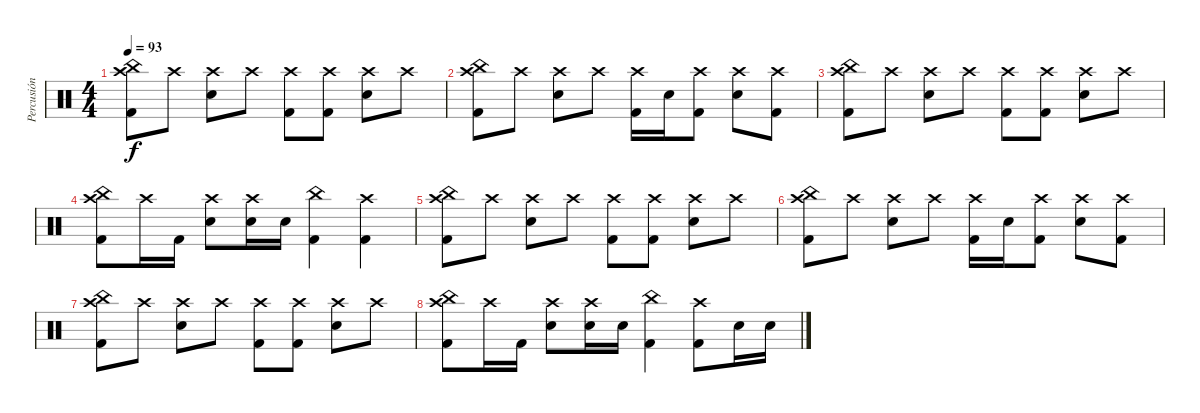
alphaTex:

\track ("Percusión" "Percusión") {instrument percussion}
\staff {score}
\articulation defaults
\ts (4 4)
\tempo 93
\clef neutral
\ks c
("China (hit)" "Kick (hit) 2" "Crash high (hit)").8{dy f} "Crash high (hit)".8 ("Snare (hit) 2" "Crash high (hit)").8 "Crash high (hit)".8 ("Kick (hit) 2" "Crash high (hit)").8 ("Kick (hit) 2" "Crash high (hit)").8 ("Snare (hit) 2" "Crash high (hit)").8 "Crash high (hit)".8 |
("China (hit)" "Kick (hit) 2" "Crash high (hit)").8 "Crash high (hit)".8 ("Snare (hit) 2" "Crash high (hit)").8 "Crash high (hit)".8 ("Kick (hit) 2" "Crash high (hit)").16 "Snare (hit) 2".16 ("Kick (hit) 2" "Crash high (hit)").8 ("Snare (hit) 2" "Crash high (hit)").8 ("Kick (hit) 2" "Crash high (hit)").8 |
("China (hit)" "Kick (hit) 2" "Crash high (hit)").8 "Crash high (hit)".8 ("Snare (hit) 2" "Crash high (hit)").8 "Crash high (hit)".8 ("Kick (hit) 2" "Crash high (hit)").8 ("Kick (hit) 2" "Crash high (hit)").8 ("Snare (hit) 2" "Crash high (hit)").8 "Crash high (hit)".8 |
("China (hit)" "Kick (hit) 2" "Crash high (hit)").8 "Crash high (hit)".16 "Kick (hit) 2".16 ("Snare (hit) 2" "Crash high (hit)").8 ("Snare (hit) 2" "Crash high (hit)").16 "Snare (hit) 2".16 ("China (hit)" "Kick (hit) 2").4 ("Kick (hit) 2" "Crash high (hit)").4 |
("China (hit)" "Kick (hit) 2" "Crash high (hit)").8 "Crash high (hit)".8 ("Snare (hit) 2" "Crash high (hit)").8 "Crash high (hit)".8 ("Kick (hit) 2" "Crash high (hit)").8 ("Kick (hit) 2" "Crash high (hit)").8 ("Snare (hit) 2" "Crash high (hit)").8 "Crash high (hit)".8 |
("China (hit)" "Kick (hit) 2" "Crash high (hit)").8 "Crash high (hit)".8 ("Snare (hit) 2" "Crash high (hit)").8 "Crash high (hit)".8 ("Kick (hit) 2" "Crash high (hit)").16 "Snare (hit) 2".16 ("Kick (hit) 2" "Crash high (hit)").8 ("Snare (hit) 2" "Crash high (hit)").8 ("Kick (hit) 2" "Crash high (hit)").8 |
("China (hit)" "Kick (hit) 2" "Crash high (hit)").8 "Crash high (hit)".8 ("Snare (hit) 2" "Crash high (hit)").8 "Crash high (hit)".8 ("Kick (hit) 2" "Crash high (hit)").8 ("Kick (hit) 2" "Crash high (hit)").8 ("Snare (hit) 2" "Crash high (hit)").8 "Crash high (hit)".8 |
("China (hit)" "Kick (hit) 2" "Crash high (hit)").8 "Crash high (hit)".16 "Kick (hit) 2".16 ("Snare (hit) 2" "Crash high (hit)").8 ("Snare (hit) 2" "Crash high (hit)").16 "Snare (hit) 2".16 ("China (hit)" "Kick (hit) 2").4 ("Kick (hit) 2" "Crash high (hit)").8 "Snare (hit) 2".16 "Snare (hit) 2".16
